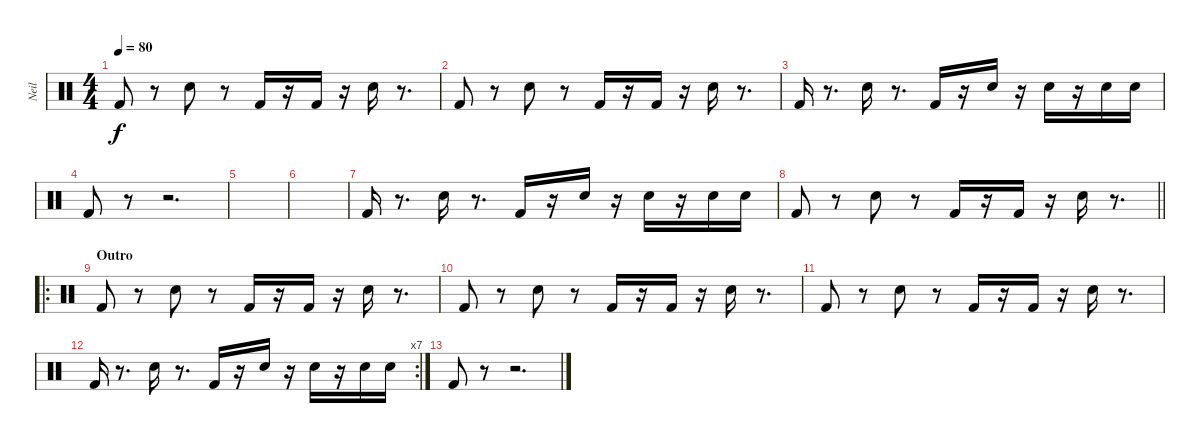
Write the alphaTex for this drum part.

\track ("Neil" "Neil") {instrument percussion}
\staff {score}
\articulation defaults
\ts (4 4)
\tempo 80
\clef neutral
\ks c "Kick (hit) 2".8{dy f}
r.8 "Electric Snare (hit)".8 r.8 "Kick (hit) 2".16 r.16 "Kick (hit) 2".16 r.16 "Electric Snare (hit)".16 r.8{d} |
"Kick (hit) 2".8 r.8 "Electric Snare (hit)".8 r.8 "Kick (hit) 2".16 r.16 "Kick (hit) 2".16 r.16 "Electric Snare (hit)".16 r.8{d} |
"Kick (hit) 2".16 r.8{d} "Electric Snare (hit)".16 r.8{d} "Kick (hit) 2".16 r.16 "Electric Snare (hit)".16 r.16 "Electric Snare (hit)".16 r.16 "Electric Snare (hit)".16 "Electric Snare (hit)".16 |
"Kick (hit) 2".8 r.8 r.2{d} |
|
|
"Kick (hit) 2".16 r.8{d} "Electric Snare (hit)".16 r.8{d} "Kick (hit) 2".16 r.16 "Electric Snare (hit)".16 r.16 "Electric Snare (hit)".16 r.16 "Electric Snare (hit)".16 "Electric Snare (hit)".16 |
\barLineRight lightlight "Kick (hit) 2".8
r.8 "Electric Snare (hit)".8 r.8 "Kick (hit) 2".16 r.16 "Kick (hit) 2".16 r.16 "Electric Snare (hit)".16 r.8{d} |
\ro
\section ("" "Outro")
"Kick (hit) 2".8 r.8 "Electric Snare (hit)".8 r.8 "Kick (hit) 2".16 r.16 "Kick (hit) 2".16 r.16 "Electric Snare (hit)".16 r.8{d} |
"Kick (hit) 2".8 r.8 "Electric Snare (hit)".8 r.8 "Kick (hit) 2".16 r.16 "Kick (hit) 2".16 r.16 "Electric Snare (hit)".16 r.8{d} |
"Kick (hit) 2".8 r.8 "Electric Snare (hit)".8 r.8 "Kick (hit) 2".16 r.16 "Kick (hit) 2".16 r.16 "Electric Snare (hit)".16 r.8{d} |
\rc 7 "Kick (hit) 2".16
r.8{d} "Electric Snare (hit)".16 r.8{d} "Kick (hit) 2".16 r.16 "Electric Snare (hit)".16 r.16 "Electric Snare (hit)".16 r.16 "Electric Snare (hit)".16 "Electric Snare (hit)".16 |
"Kick (hit) 2".8 r.8 r.2{d}
